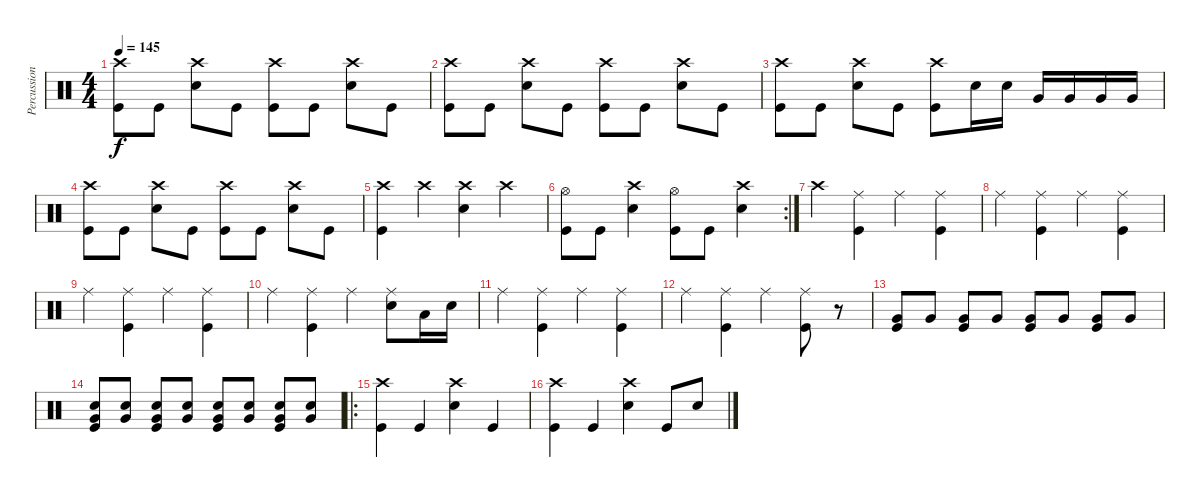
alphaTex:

\track ("Percussion" "Percussion") {instrument percussion}
\staff {score}
\articulation defaults
\ts (4 4)
\tempo 145
\clef neutral
\ks c
("Kick (hit)" "Crash high (hit)").8{dy f} "Kick (hit)".8 ("Snare (hit) 2" "Crash high (hit)").8 "Kick (hit)".8 ("Kick (hit)" "Crash high (hit)").8 "Kick (hit)".8 ("Snare (hit) 2" "Crash high (hit)").8 "Kick (hit)".8 |
("Kick (hit)" "Crash high (hit)").8 "Kick (hit)".8 ("Snare (hit) 2" "Crash high (hit)").8 "Kick (hit)".8 ("Kick (hit)" "Crash high (hit)").8 "Kick (hit)".8 ("Snare (hit) 2" "Crash high (hit)").8 "Kick (hit)".8 |
("Kick (hit)" "Crash high (hit)").8 "Kick (hit)".8 ("Snare (hit) 2" "Crash high (hit)").8 "Kick (hit)".8 ("Kick (hit)" "Crash high (hit)").8 "Snare (hit) 2".16 "Snare (hit) 2".16 "Very Low Tom (hit)".16 "Very Low Tom (hit)".16 "Very Low Tom (hit)".16 "Very Low Tom (hit)".16 |
("Kick (hit)" "Crash high (hit)").8 "Kick (hit)".8 ("Snare (hit) 2" "Crash high (hit)").8 "Kick (hit)".8 ("Kick (hit)" "Crash high (hit)").8 "Kick (hit)".8 ("Snare (hit) 2" "Crash high (hit)").8 "Kick (hit)".8 |
("Kick (hit)" "Crash high (hit)").4 "Crash high (hit)".4 ("Snare (hit) 2" "Crash high (hit)").4 "Crash high (hit)".4 |
\rc 2
("Hi-Hat (open)" "Kick (hit)").8 "Kick (hit)".8 ("Snare (hit) 2" "Crash high (hit)").4 ("Kick (hit)" "Hi-Hat (open)").8 "Kick (hit)".8 ("Snare (hit) 2" "Crash high (hit)").4 |
"Crash high (hit)".4 ("Kick (hit)" "Ride (middle)").4 "Ride (middle)".4 ("Kick (hit)" "Ride (middle)").4 |
"Ride (middle)".4 ("Kick (hit)" "Ride (middle)").4 "Ride (middle)".4 ("Kick (hit)" "Ride (middle)").4 |
"Ride (middle)".4 ("Kick (hit)" "Ride (middle)").4 "Ride (middle)".4 ("Kick (hit)" "Ride (middle)").4 |
"Ride (middle)".4 ("Kick (hit)" "Ride (middle)").4 "Ride (middle)".4 ("Snare (hit) 2" "Ride (middle)").8 "Low Tom (hit)".16 "Snare (hit) 2".16 |
"Ride (middle)".4 ("Kick (hit)" "Ride (middle)").4 "Ride (middle)".4 ("Kick (hit)" "Ride (middle)").4 |
"Ride (middle)".4 ("Kick (hit)" "Ride (middle)").4 "Ride (middle)".4 ("Kick (hit)" "Ride (middle)").8 r.8{volume 3} |
("Very Low Tom (hit)" "Kick (hit)").8{volume 13} "Very Low Tom (hit)".8 ("Kick (hit)" "Very Low Tom (hit)").8 "Very Low Tom (hit)".8 ("Kick (hit)" "Very Low Tom (hit)").8 "Very Low Tom (hit)".8 ("Kick (hit)" "Very Low Tom (hit)").8 "Very Low Tom (hit)".8 |
("Kick (hit)" "Very Low Tom (hit)" "Snare (hit) 2").8 ("Very Low Tom (hit)" "Snare (hit) 2").8 ("Kick (hit)" "Very Low Tom (hit)" "Snare (hit) 2").8 ("Very Low Tom (hit)" "Snare (hit) 2").8 ("Kick (hit)" "Snare (hit) 2" "Very Low Tom (hit)").8 ("Very Low Tom (hit)" "Snare (hit) 2").8 ("Kick (hit)" "Very Low Tom (hit)" "Snare (hit) 2").8 ("Very Low Tom (hit)" "Snare (hit) 2").8 |
\ro
("Kick (hit)" "Crash high (hit)").4 "Kick (hit)".4 ("Snare (hit) 2" "Crash high (hit)").4 "Kick (hit)".4 |
("Kick (hit)" "Crash high (hit)").4 "Kick (hit)".4 ("Snare (hit) 2" "Crash high (hit)").4 "Kick (hit)".8 "Snare (hit) 2".8
